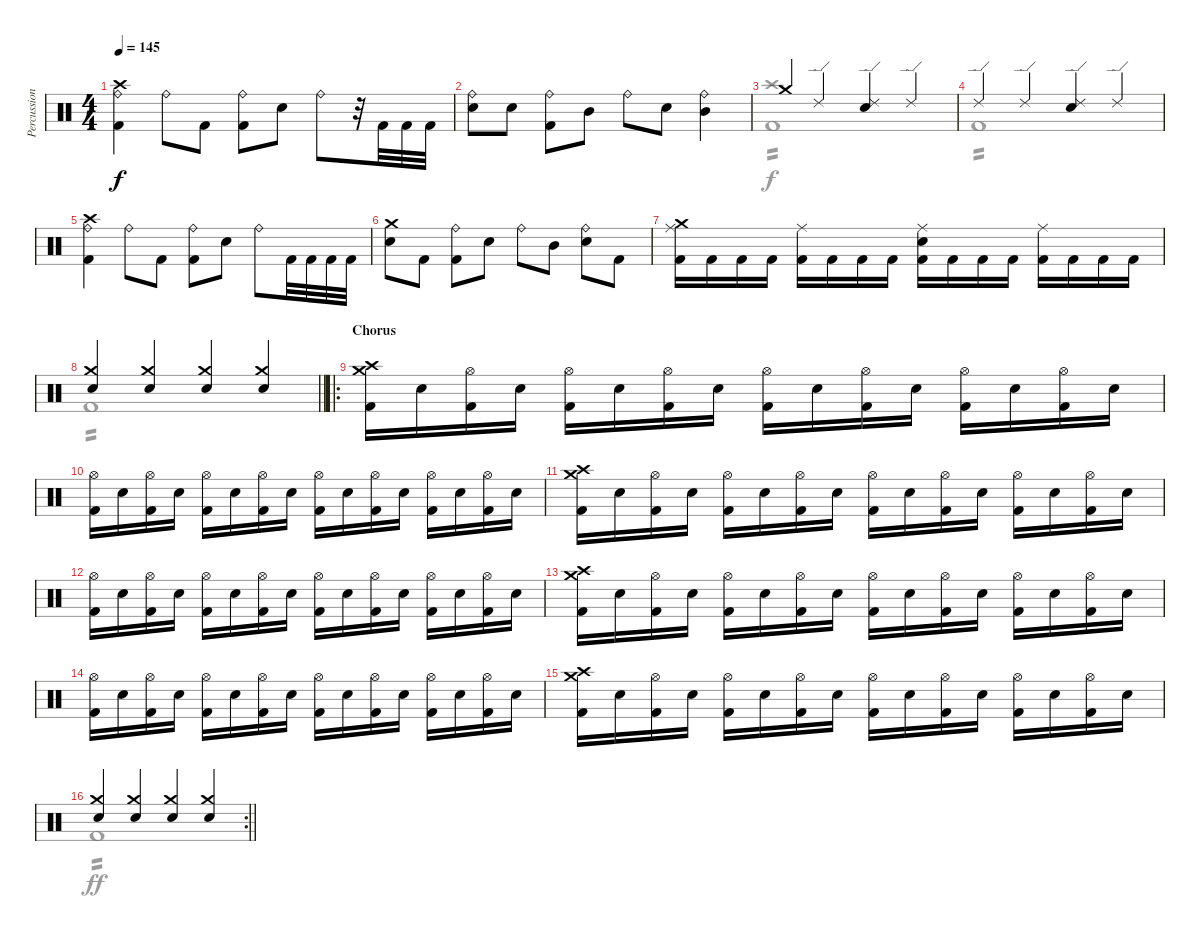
\track ("Percussion" "Percussion") {instrument percussion}
\staff {score}
\articulation defaults
\voice
\ts (4 4)
\tempo 145
\clef neutral
\ks c
("Ride (bell)" "Crash high (hit)" "Kick (hit) 2").4{dy f} "Ride (bell)".8 "Kick (hit) 2".8 ("Ride (bell)" "Kick (hit) 2").8 "Electric Snare (hit)".8 "Ride (bell)".8 r.32 "Kick (hit) 2".32 "Kick (hit) 2".32 "Kick (hit) 2".32 |
("Ride (bell)" "Electric Snare (hit)").8 "Electric Snare (hit)".8 ("Ride (bell)" "Kick (hit) 2").8 "Mid Tom (hit)".8 "Ride (bell)".8 "Electric Snare (hit)".8 ("Ride (bell)" "Mid Tom (hit)").4 |
"Crash medium (hit)".4 "Ride (edge) 2".4 ("Ride (edge) 2" "Electric Snare (hit)").4 "Ride (edge) 2".4 |
"Ride (edge) 2".4 "Ride (edge) 2".4 ("Ride (edge) 2" "Electric Snare (hit)").4 "Ride (edge) 2".4 |
("Ride (bell)" "Crash high (hit)" "Kick (hit) 2").4 "Ride (bell)".8 "Kick (hit) 2".8 ("Ride (bell)" "Kick (hit) 2").8 "Electric Snare (hit)".8 "Ride (bell)".8 "Kick (hit) 2".32 "Kick (hit) 2".32 "Kick (hit) 2".32 "Kick (hit) 2".32 |
("Crash medium (hit)" "Electric Snare (hit)").8 "Kick (hit) 2".8 ("Ride (bell)" "Kick (hit) 2").8 "Electric Snare (hit)".8 "Ride (bell)".8 "Mid Tom (hit)".8 ("Ride (bell)" "Electric Snare (hit)").8 "Kick (hit) 2".8 |
("Ride (middle)" "Crash medium (hit)" "Kick (hit) 2").16 "Kick (hit) 2".16 "Kick (hit) 2".16 "Kick (hit) 2".16 ("Ride (middle)" "Kick (hit) 2").16 "Kick (hit) 2".16 "Kick (hit) 2".16 "Kick (hit) 2".16 ("Ride (middle)" "Electric Snare (hit)" "Kick (hit) 2").16 "Kick (hit) 2".16 "Kick (hit) 2".16 "Kick (hit) 2".16 ("Ride (middle)" "Kick (hit) 2").16 "Kick (hit) 2".16 "Kick (hit) 2".16 "Kick (hit) 2".16 |
\barLineRight lightlight
("Crash medium (hit)" "Electric Snare (hit)").4 ("Crash medium (hit)" "Electric Snare (hit)").4 ("Crash medium (hit)" "Electric Snare (hit)").4 ("Crash medium (hit)" "Electric Snare (hit)").4 |
\ro
\section ("" "Chorus")
("Crash medium (hit)" "Crash high (hit)" "Kick (hit) 2").16 "Electric Snare (hit)".16 ("Hi-Hat (open)" "Kick (hit) 2").16 "Electric Snare (hit)".16 ("Hi-Hat (open)" "Kick (hit) 2").16 "Electric Snare (hit)".16 ("Hi-Hat (open)" "Kick (hit) 2").16 "Electric Snare (hit)".16 ("Hi-Hat (open)" "Kick (hit) 2").16 "Electric Snare (hit)".16 ("Hi-Hat (open)" "Kick (hit) 2").16 "Electric Snare (hit)".16 ("Hi-Hat (open)" "Kick (hit) 2").16 "Electric Snare (hit)".16 ("Hi-Hat (open)" "Kick (hit) 2").16 "Electric Snare (hit)".16 |
("Hi-Hat (open)" "Kick (hit) 2").16 "Electric Snare (hit)".16 ("Hi-Hat (open)" "Kick (hit) 2").16 "Electric Snare (hit)".16 ("Hi-Hat (open)" "Kick (hit) 2").16 "Electric Snare (hit)".16 ("Hi-Hat (open)" "Kick (hit) 2").16 "Electric Snare (hit)".16 ("Hi-Hat (open)" "Kick (hit) 2").16 "Electric Snare (hit)".16 ("Hi-Hat (open)" "Kick (hit) 2").16 "Electric Snare (hit)".16 ("Hi-Hat (open)" "Kick (hit) 2").16 "Electric Snare (hit)".16 ("Hi-Hat (open)" "Kick (hit) 2").16 "Electric Snare (hit)".16 |
("Crash medium (hit)" "Crash high (hit)" "Kick (hit) 2").16 "Electric Snare (hit)".16 ("Hi-Hat (open)" "Kick (hit) 2").16 "Electric Snare (hit)".16 ("Hi-Hat (open)" "Kick (hit) 2").16 "Electric Snare (hit)".16 ("Hi-Hat (open)" "Kick (hit) 2").16 "Electric Snare (hit)".16 ("Hi-Hat (open)" "Kick (hit) 2").16 "Electric Snare (hit)".16 ("Hi-Hat (open)" "Kick (hit) 2").16 "Electric Snare (hit)".16 ("Hi-Hat (open)" "Kick (hit) 2").16 "Electric Snare (hit)".16 ("Hi-Hat (open)" "Kick (hit) 2").16 "Electric Snare (hit)".16 |
("Hi-Hat (open)" "Kick (hit) 2").16 "Electric Snare (hit)".16 ("Hi-Hat (open)" "Kick (hit) 2").16 "Electric Snare (hit)".16 ("Hi-Hat (open)" "Kick (hit) 2").16 "Electric Snare (hit)".16 ("Hi-Hat (open)" "Kick (hit) 2").16 "Electric Snare (hit)".16 ("Hi-Hat (open)" "Kick (hit) 2").16 "Electric Snare (hit)".16 ("Hi-Hat (open)" "Kick (hit) 2").16 "Electric Snare (hit)".16 ("Hi-Hat (open)" "Kick (hit) 2").16 "Electric Snare (hit)".16 ("Hi-Hat (open)" "Kick (hit) 2").16 "Electric Snare (hit)".16 |
("Crash medium (hit)" "Crash high (hit)" "Kick (hit) 2").16 "Electric Snare (hit)".16 ("Hi-Hat (open)" "Kick (hit) 2").16 "Electric Snare (hit)".16 ("Hi-Hat (open)" "Kick (hit) 2").16 "Electric Snare (hit)".16 ("Hi-Hat (open)" "Kick (hit) 2").16 "Electric Snare (hit)".16 ("Hi-Hat (open)" "Kick (hit) 2").16 "Electric Snare (hit)".16 ("Hi-Hat (open)" "Kick (hit) 2").16 "Electric Snare (hit)".16 ("Hi-Hat (open)" "Kick (hit) 2").16 "Electric Snare (hit)".16 ("Hi-Hat (open)" "Kick (hit) 2").16 "Electric Snare (hit)".16 |
("Hi-Hat (open)" "Kick (hit) 2").16 "Electric Snare (hit)".16 ("Hi-Hat (open)" "Kick (hit) 2").16 "Electric Snare (hit)".16 ("Hi-Hat (open)" "Kick (hit) 2").16 "Electric Snare (hit)".16 ("Hi-Hat (open)" "Kick (hit) 2").16 "Electric Snare (hit)".16 ("Hi-Hat (open)" "Kick (hit) 2").16 "Electric Snare (hit)".16 ("Hi-Hat (open)" "Kick (hit) 2").16 "Electric Snare (hit)".16 ("Hi-Hat (open)" "Kick (hit) 2").16 "Electric Snare (hit)".16 ("Hi-Hat (open)" "Kick (hit) 2").16 "Electric Snare (hit)".16 |
("Crash medium (hit)" "Crash high (hit)" "Kick (hit) 2").16 "Electric Snare (hit)".16 ("Hi-Hat (open)" "Kick (hit) 2").16 "Electric Snare (hit)".16 ("Hi-Hat (open)" "Kick (hit) 2").16 "Electric Snare (hit)".16 ("Hi-Hat (open)" "Kick (hit) 2").16 "Electric Snare (hit)".16 ("Hi-Hat (open)" "Kick (hit) 2").16 "Electric Snare (hit)".16 ("Hi-Hat (open)" "Kick (hit) 2").16 "Electric Snare (hit)".16 ("Hi-Hat (open)" "Kick (hit) 2").16 "Electric Snare (hit)".16 ("Hi-Hat (open)" "Kick (hit) 2").16 "Electric Snare (hit)".16 |
\rc 2
\barLineRight lightlight
("Crash medium (hit)" "Electric Snare (hit)").4 ("Crash medium (hit)" "Electric Snare (hit)").4 ("Crash medium (hit)" "Electric Snare (hit)").4 ("Crash medium (hit)" "Electric Snare (hit)").4
\voice
\clef neutral
\ottava regular
\simile none
\ks c
|
|
("Crash high (hit)" "Kick (hit) 2").1{tp 2} |
"Kick (hit) 2".1{tp 2} |
|
|
|
\barLineRight lightlight "Kick (hit) 2".1{tp 2}
|
|
|
|
|
|
|
|
\barLineRight lightlight "Kick (hit) 2".1{tp 2 dy ff}
